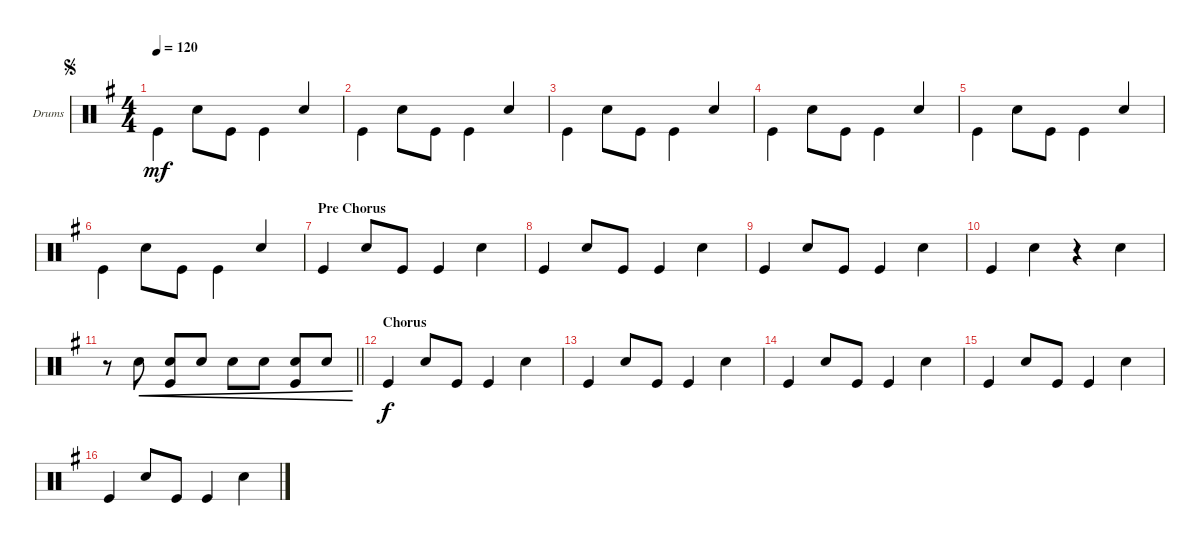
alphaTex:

\defaultSystemsLayout 4
\bracketExtendMode groupsimilarinstruments
\useSystemSignSeparator
\multiTrackTrackNamePolicy allsystems
\firstSystemTrackNameOrientation horizontal
\otherSystemsTrackNameOrientation horizontal
\track ("Drumkit" "Drums") {multiBarRest instrument percussion}
\staff {score}
\articulation defaults
\ts (4 4)
\jump segno
\tempo 120
\clef neutral
\ks g "Kick (hit)".4{dy mf beam invert} "Snare (hit) 2".8{beam invert} "Kick (hit)".8 "Kick (hit)".4{beam invert} "Snare (hit) 2".4{beam invert}
|
"Kick (hit)".4{beam invert} "Snare (hit) 2".8{beam invert} "Kick (hit)".8 "Kick (hit)".4{beam invert} "Snare (hit) 2".4{beam invert} |
"Kick (hit)".4{beam invert} "Snare (hit) 2".8{beam invert} "Kick (hit)".8 "Kick (hit)".4{beam invert} "Snare (hit) 2".4{beam invert} |
"Kick (hit)".4{beam invert} "Snare (hit) 2".8{beam invert} "Kick (hit)".8 "Kick (hit)".4{beam invert} "Snare (hit) 2".4{beam invert} |
"Kick (hit)".4{beam invert} "Snare (hit) 2".8{beam invert} "Kick (hit)".8 "Kick (hit)".4{beam invert} "Snare (hit) 2".4{beam invert} |
"Kick (hit)".4{beam invert} "Snare (hit) 2".8{beam invert} "Kick (hit)".8 "Kick (hit)".4{beam invert} "Snare (hit) 2".4{beam invert} |
\section ("" "Pre Chorus")
"Kick (hit)".4 "Snare (hit) 2".8 "Kick (hit)".8 "Kick (hit)".4 "Snare (hit) 2".4 |
"Kick (hit)".4 "Snare (hit) 2".8 "Kick (hit)".8 "Kick (hit)".4 "Snare (hit) 2".4 |
"Kick (hit)".4 "Snare (hit) 2".8 "Kick (hit)".8 "Kick (hit)".4 "Snare (hit) 2".4 |
"Kick (hit)".4 "Snare (hit) 2".4 r.4 "Snare (hit) 2".4 |
\barLineRight lightlight
r.8 "Snare (hit) 2".8{cre} ("Kick (hit)" "Snare (hit) 2").8{cre} "Snare (hit) 2".8{cre} "Snare (hit) 2".8{cre} "Snare (hit) 2".8{cre} ("Kick (hit)" "Snare (hit) 2").8{cre} "Snare (hit) 2".8{cre} |
\section ("" "Chorus")
"Kick (hit)".4{dy f} "Snare (hit) 2".8 "Kick (hit)".8 "Kick (hit)".4 "Snare (hit) 2".4 |
"Kick (hit)".4 "Snare (hit) 2".8 "Kick (hit)".8 "Kick (hit)".4 "Snare (hit) 2".4 |
"Kick (hit)".4 "Snare (hit) 2".8 "Kick (hit)".8 "Kick (hit)".4 "Snare (hit) 2".4 |
"Kick (hit)".4 "Snare (hit) 2".8 "Kick (hit)".8 "Kick (hit)".4 "Snare (hit) 2".4 |
"Kick (hit)".4 "Snare (hit) 2".8 "Kick (hit)".8 "Kick (hit)".4 "Snare (hit) 2".4
